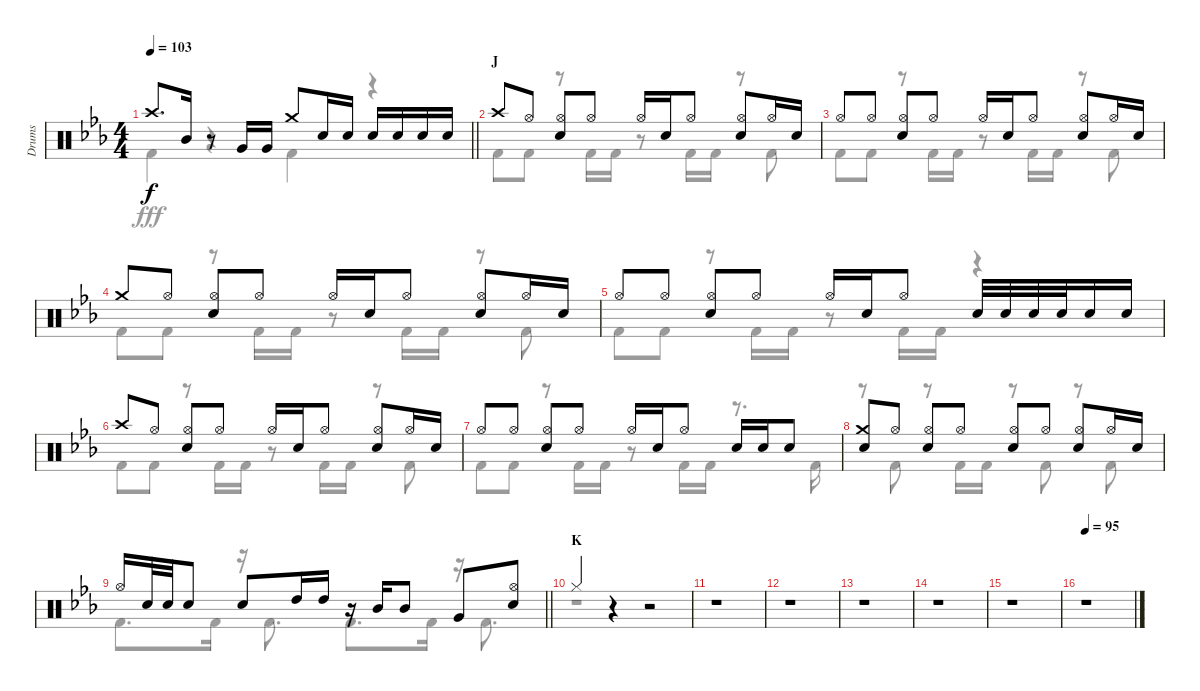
\track ("Drums" "Drums") {instrument percussion}
\staff {score}
\articulation defaults
\voice
\ts (4 4)
\tempo 103
\clef neutral
\barLineRight lightlight
\ks eb "Crash high (hit)".8{d dy f} "Mid Tom (hit)".16
r.8 "Very Low Tom (hit)".16 "Very Low Tom (hit)".16 "Crash medium (hit)".8 "Snare (hit) 2".16 "Snare (hit) 2".16 "Snare (hit) 2".16 "Snare (hit) 2".16 "Snare (hit) 2".16 "Snare (hit) 2".16 |
\section ("" "J")
"Crash high (hit)".8 "Hi-Hat (open)".8 ("Hi-Hat (open)" "Snare (hit) 2").8 "Hi-Hat (open)".8 "Hi-Hat (open)".16 "Snare (hit) 2".16 "Hi-Hat (open)".8 ("Hi-Hat (open)" "Snare (hit) 2").8 "Hi-Hat (open)".16 "Snare (hit) 2".16 |
"Hi-Hat (open)".8 "Hi-Hat (open)".8 ("Hi-Hat (open)" "Snare (hit) 2").8 "Hi-Hat (open)".8 "Hi-Hat (open)".16 "Snare (hit) 2".16 "Hi-Hat (open)".8 ("Hi-Hat (open)" "Snare (hit) 2").8 "Hi-Hat (open)".16 "Snare (hit) 2".16 |
"Crash medium (hit)".8 "Hi-Hat (open)".8 ("Hi-Hat (open)" "Snare (hit) 2").8 "Hi-Hat (open)".8 "Hi-Hat (open)".16 "Snare (hit) 2".16 "Hi-Hat (open)".8 ("Hi-Hat (open)" "Snare (hit) 2").8 "Hi-Hat (open)".16 "Snare (hit) 2".16 |
"Hi-Hat (open)".8 "Hi-Hat (open)".8 ("Hi-Hat (open)" "Snare (hit) 2").8 "Hi-Hat (open)".8 "Hi-Hat (open)".16 "Snare (hit) 2".16 "Hi-Hat (open)".8 "Snare (hit) 2".32 "Snare (hit) 2".32 "Snare (hit) 2".32 "Snare (hit) 2".32 "Snare (hit) 2".16 "Snare (hit) 2".16 |
"Crash high (hit)".8 "Hi-Hat (open)".8 ("Hi-Hat (open)" "Snare (hit) 2").8 "Hi-Hat (open)".8 "Hi-Hat (open)".16 "Snare (hit) 2".16 "Hi-Hat (open)".8 ("Hi-Hat (open)" "Snare (hit) 2").8 "Hi-Hat (open)".16 "Snare (hit) 2".16 |
"Hi-Hat (open)".8 "Hi-Hat (open)".8 ("Hi-Hat (open)" "Snare (hit) 2").8 "Hi-Hat (open)".8 "Hi-Hat (open)".16 "Snare (hit) 2".16 "Hi-Hat (open)".8 "Snare (hit) 2".16 "Snare (hit) 2".16 "Snare (hit) 2".8 |
("Crash medium (hit)" "Snare (hit) 2").8 "Hi-Hat (open)".8 ("Hi-Hat (open)" "Snare (hit) 2").8 "Hi-Hat (open)".8 ("Hi-Hat (open)" "Snare (hit) 2").8 "Hi-Hat (open)".8 ("Hi-Hat (open)" "Snare (hit) 2").8 "Hi-Hat (open)".16 "Snare (hit) 2".16 |
\barLineRight lightlight "Hi-Hat (open)".16 "Snare (hit) 2".32 "Snare (hit) 2".32 "Snare (hit) 2".8 "Snare (hit) 2".8 "High Tom (hit)".16 "High Tom (hit)".16
r.16 "Mid Tom (hit)".16 "Mid Tom (hit)".8 "Very Low Tom (hit)".8 ("Hi-Hat (open)" "Snare (hit) 2").8 |
\section ("" "K")
"Hi-Hat (closed)".4 r.4 r.2 |
r.1 |
r.1 |
r.1 |
r.1 |
r.1 |
\tempo 95
r.1
\voice
\clef neutral
\ottava regular
\simile none
\barLineRight lightlight
\ks eb "Kick (hit) 2".4{dy fff}
r.4 "Kick (hit) 2".4 r.4 |
"Kick (hit) 2".8 "Kick (hit) 2".8 r.8 "Kick (hit) 2".16 "Kick (hit) 2".16 r.8 "Kick (hit) 2".16 "Kick (hit) 2".16 r.8 "Kick (hit) 2".8 |
"Kick (hit) 2".8 "Kick (hit) 2".8 r.8 "Kick (hit) 2".16 "Kick (hit) 2".16 r.8 "Kick (hit) 2".16 "Kick (hit) 2".16 r.8 "Kick (hit) 2".8 |
"Kick (hit) 2".8 "Kick (hit) 2".8 r.8 "Kick (hit) 2".16 "Kick (hit) 2".16 r.8 "Kick (hit) 2".16 "Kick (hit) 2".16 r.8 "Kick (hit) 2".8 |
"Kick (hit) 2".8 "Kick (hit) 2".8 r.8 "Kick (hit) 2".16 "Kick (hit) 2".16 r.8 "Kick (hit) 2".16 "Kick (hit) 2".16 r.4 |
"Kick (hit) 2".8 "Kick (hit) 2".8 r.8 "Kick (hit) 2".16 "Kick (hit) 2".16 r.8 "Kick (hit) 2".16 "Kick (hit) 2".16 r.8 "Kick (hit) 2".8 |
"Kick (hit) 2".8 "Kick (hit) 2".8 r.8 "Kick (hit) 2".16 "Kick (hit) 2".16 r.8 "Kick (hit) 2".16 "Kick (hit) 2".16 r.8{d} "Kick (hit) 2".16 |
r.8 "Kick (hit) 2".8 r.8 "Kick (hit) 2".16 "Kick (hit) 2".16 r.8 "Kick (hit) 2".8 r.8 "Kick (hit) 2".8 |
\barLineRight lightlight "Kick (hit) 2".8{d} "Kick (hit) 2".16
r.16 "Kick (hit) 2".8{d} "Kick (hit) 2".8{d} "Kick (hit) 2".16 r.16 "Kick (hit) 2".8{d} |
r.1 |
r.1 |
r.1 |
r.1 |
r.1 |
r.1 |
r.1
